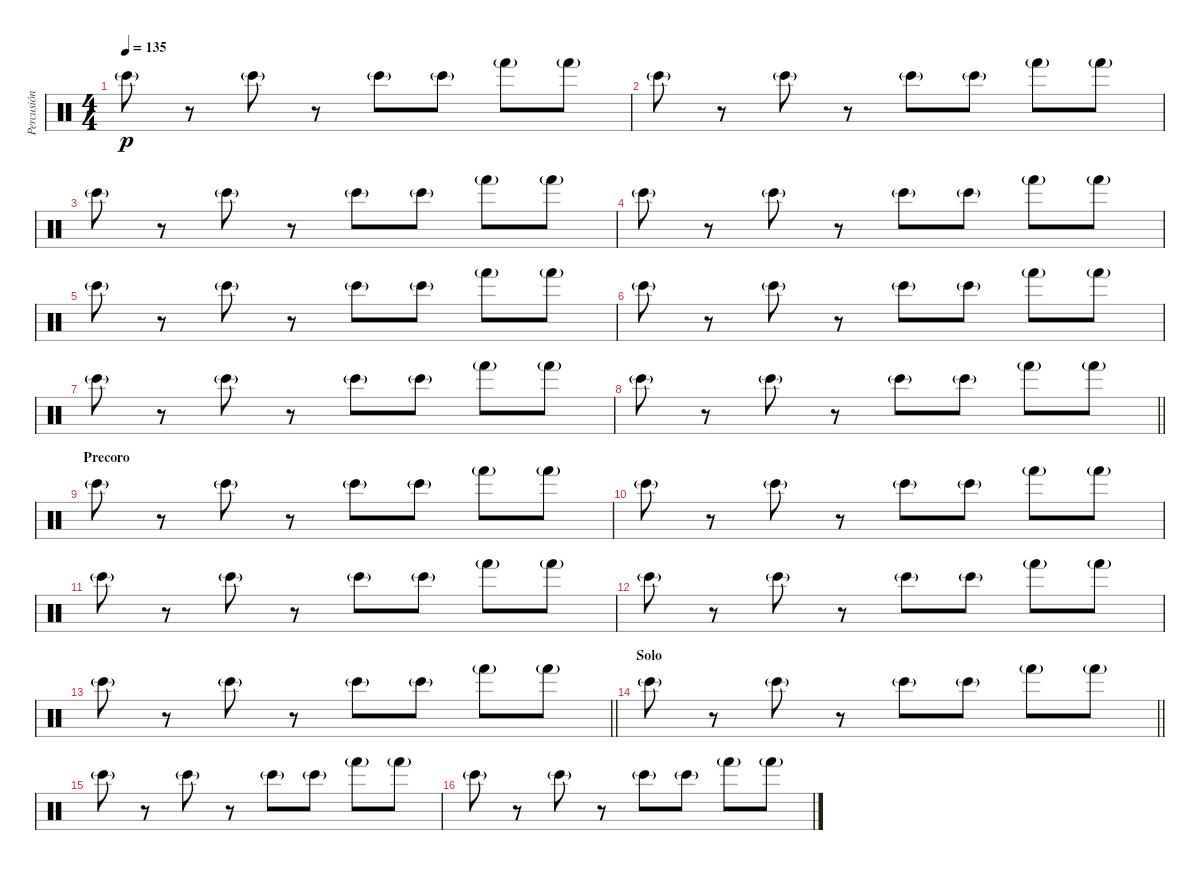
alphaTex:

\track ("Percusión" "Percusión") {instrument percussion}
\staff {score}
\articulation defaults
\ts (4 4)
\tempo 135
\clef neutral
\ks c "Bongo High (hit)"{g}.8{dy p}
r.8 "Bongo High (hit)"{g}.8 r.8 "Bongo High (hit)"{g}.8 "Bongo High (hit)"{g}.8 "Hand (hit)"{g}.8 "Hand (hit)"{g}.8 |
"Bongo High (hit)"{g}.8 r.8 "Bongo High (hit)"{g}.8 r.8 "Bongo High (hit)"{g}.8 "Bongo High (hit)"{g}.8 "Hand (hit)"{g}.8 "Hand (hit)"{g}.8 |
"Bongo High (hit)"{g}.8 r.8 "Bongo High (hit)"{g}.8 r.8 "Bongo High (hit)"{g}.8 "Bongo High (hit)"{g}.8 "Hand (hit)"{g}.8 "Hand (hit)"{g}.8 |
"Bongo High (hit)"{g}.8 r.8 "Bongo High (hit)"{g}.8 r.8 "Bongo High (hit)"{g}.8 "Bongo High (hit)"{g}.8 "Hand (hit)"{g}.8 "Hand (hit)"{g}.8 |
"Bongo High (hit)"{g}.8 r.8 "Bongo High (hit)"{g}.8 r.8 "Bongo High (hit)"{g}.8 "Bongo High (hit)"{g}.8 "Hand (hit)"{g}.8 "Hand (hit)"{g}.8 |
"Bongo High (hit)"{g}.8 r.8 "Bongo High (hit)"{g}.8 r.8 "Bongo High (hit)"{g}.8 "Bongo High (hit)"{g}.8 "Hand (hit)"{g}.8 "Hand (hit)"{g}.8 |
"Bongo High (hit)"{g}.8 r.8 "Bongo High (hit)"{g}.8 r.8 "Bongo High (hit)"{g}.8 "Bongo High (hit)"{g}.8 "Hand (hit)"{g}.8 "Hand (hit)"{g}.8 |
\barLineRight lightlight "Bongo High (hit)"{g}.8
r.8 "Bongo High (hit)"{g}.8 r.8 "Bongo High (hit)"{g}.8 "Bongo High (hit)"{g}.8 "Hand (hit)"{g}.8 "Hand (hit)"{g}.8 |
\section ("" "Precoro")
"Bongo High (hit)"{g}.8 r.8 "Bongo High (hit)"{g}.8 r.8 "Bongo High (hit)"{g}.8 "Bongo High (hit)"{g}.8 "Hand (hit)"{g}.8 "Hand (hit)"{g}.8 |
"Bongo High (hit)"{g}.8 r.8 "Bongo High (hit)"{g}.8 r.8 "Bongo High (hit)"{g}.8 "Bongo High (hit)"{g}.8 "Hand (hit)"{g}.8 "Hand (hit)"{g}.8 |
"Bongo High (hit)"{g}.8 r.8 "Bongo High (hit)"{g}.8 r.8 "Bongo High (hit)"{g}.8 "Bongo High (hit)"{g}.8 "Hand (hit)"{g}.8 "Hand (hit)"{g}.8 |
"Bongo High (hit)"{g}.8 r.8 "Bongo High (hit)"{g}.8 r.8 "Bongo High (hit)"{g}.8 "Bongo High (hit)"{g}.8 "Hand (hit)"{g}.8 "Hand (hit)"{g}.8 |
\barLineRight lightlight "Bongo High (hit)"{g}.8
r.8 "Bongo High (hit)"{g}.8 r.8 "Bongo High (hit)"{g}.8 "Bongo High (hit)"{g}.8 "Hand (hit)"{g}.8 "Hand (hit)"{g}.8 |
\section ("" "Solo")
\barLineRight lightlight "Bongo High (hit)"{g}.8
r.8 "Bongo High (hit)"{g}.8 r.8 "Bongo High (hit)"{g}.8 "Bongo High (hit)"{g}.8 "Hand (hit)"{g}.8 "Hand (hit)"{g}.8 |
"Bongo High (hit)"{g}.8 r.8 "Bongo High (hit)"{g}.8 r.8 "Bongo High (hit)"{g}.8 "Bongo High (hit)"{g}.8 "Hand (hit)"{g}.8 "Hand (hit)"{g}.8 |
"Bongo High (hit)"{g}.8 r.8 "Bongo High (hit)"{g}.8 r.8 "Bongo High (hit)"{g}.8 "Bongo High (hit)"{g}.8 "Hand (hit)"{g}.8 "Hand (hit)"{g}.8
